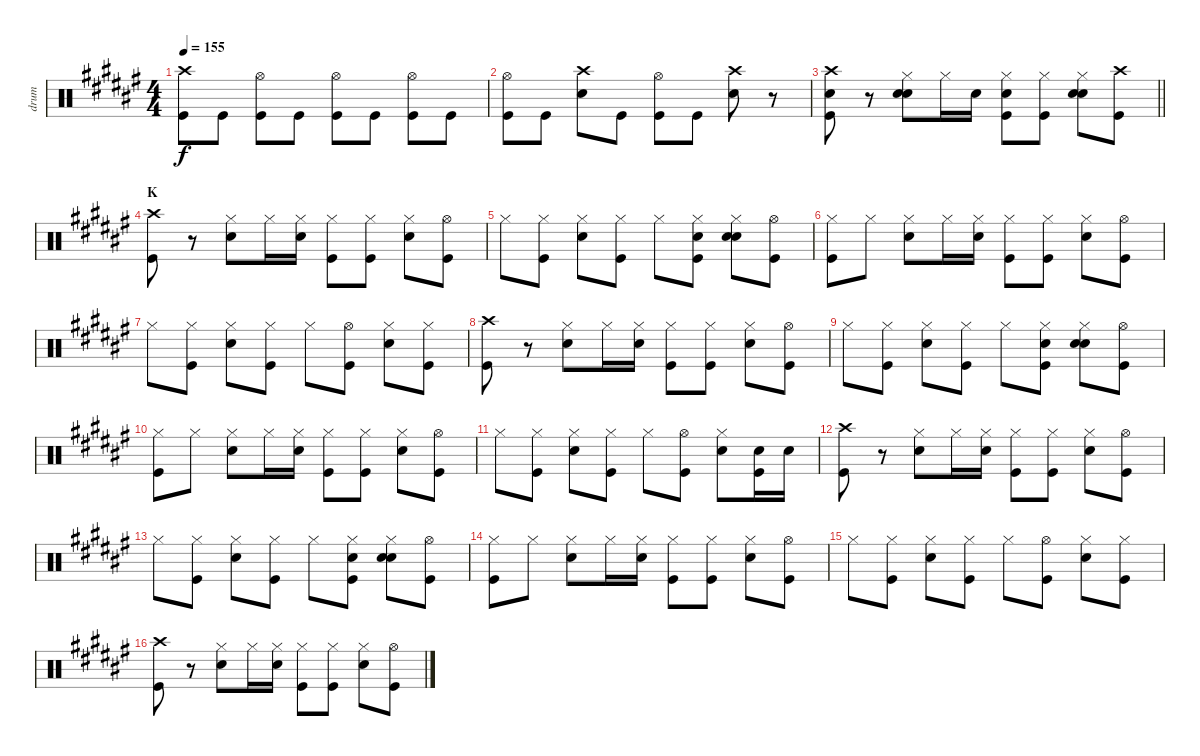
\track ("drum" "drum") {instrument percussion}
\staff {score}
\articulation defaults
\ts (4 4)
\tempo 155
\clef neutral
\ks f#
("Crash high (hit)" "Kick (hit)").8{dy f} "Kick (hit)".8 ("Hi-Hat (open)" "Kick (hit)").8 "Kick (hit)".8 ("Hi-Hat (open)" "Kick (hit)").8 "Kick (hit)".8 ("Hi-Hat (open)" "Kick (hit)").8 "Kick (hit)".8 |
("Hi-Hat (open)" "Kick (hit)").8 "Kick (hit)".8 ("Crash high (hit)" "Snare (hit) 2").8 "Kick (hit)".8 ("Hi-Hat (open)" "Kick (hit)").8 "Kick (hit)".8 ("Crash high (hit)" "Snare (hit) 2").8 r.8 |
\barLineRight lightlight
("Crash high (hit)" "Hand Clap (hit)" "Kick (hit)").8 r.8 ("Hi-Hat (closed)" "Snare (hit) 2" "Hand Clap (hit)").8 "Hi-Hat (closed)".16 "Snare (hit) 2".16 ("Hi-Hat (closed)" "Hand Clap (hit)" "Kick (hit)").8 ("Hi-Hat (closed)" "Kick (hit)").8 ("Hi-Hat (closed)" "Snare (hit) 2" "Hand Clap (hit)").8 ("Crash high (hit)" "Kick (hit)").8 |
\section ("" "K")
("Crash high (hit)" "Kick (hit)").8 r.8 ("Hi-Hat (closed)" "Snare (hit) 2").8 "Hi-Hat (closed)".16 ("Hi-Hat (closed)" "Snare (hit) 2").16 ("Hi-Hat (closed)" "Kick (hit)").8 ("Hi-Hat (closed)" "Kick (hit)").8 ("Hi-Hat (closed)" "Snare (hit) 2").8 ("Hi-Hat (open)" "Kick (hit)").8 |
"Hi-Hat (closed)".8 ("Hi-Hat (closed)" "Kick (hit)").8 ("Hi-Hat (closed)" "Snare (hit) 2").8 ("Hi-Hat (closed)" "Kick (hit)").8 "Hi-Hat (closed)".8 ("Hi-Hat (closed)" "Hand Clap (hit)" "Kick (hit)").8 ("Hi-Hat (closed)" "Snare (hit) 2" "Hand Clap (hit)").8 ("Hi-Hat (open)" "Kick (hit)").8 |
("Hi-Hat (closed)" "Kick (hit)").8 "Hi-Hat (closed)".8 ("Hi-Hat (closed)" "Snare (hit) 2").8 "Hi-Hat (closed)".16 ("Hi-Hat (closed)" "Snare (hit) 2").16 ("Hi-Hat (closed)" "Kick (hit)").8 ("Hi-Hat (closed)" "Kick (hit)").8 ("Hi-Hat (closed)" "Snare (hit) 2").8 ("Hi-Hat (open)" "Kick (hit)").8 |
"Hi-Hat (closed)".8 ("Hi-Hat (closed)" "Kick (hit)").8 ("Hi-Hat (closed)" "Snare (hit) 2").8 ("Hi-Hat (closed)" "Kick (hit)").8 "Hi-Hat (closed)".8 ("Hi-Hat (open)" "Kick (hit)").8 ("Hi-Hat (closed)" "Snare (hit) 2").8 ("Hi-Hat (closed)" "Kick (hit)").8 |
("Crash high (hit)" "Kick (hit)").8 r.8 ("Hi-Hat (closed)" "Snare (hit) 2").8 "Hi-Hat (closed)".16 ("Hi-Hat (closed)" "Snare (hit) 2").16 ("Hi-Hat (closed)" "Kick (hit)").8 ("Hi-Hat (closed)" "Kick (hit)").8 ("Hi-Hat (closed)" "Snare (hit) 2").8 ("Hi-Hat (open)" "Kick (hit)").8 |
"Hi-Hat (closed)".8 ("Hi-Hat (closed)" "Kick (hit)").8 ("Hi-Hat (closed)" "Snare (hit) 2").8 ("Hi-Hat (closed)" "Kick (hit)").8 "Hi-Hat (closed)".8 ("Hi-Hat (closed)" "Hand Clap (hit)" "Kick (hit)").8 ("Hi-Hat (closed)" "Snare (hit) 2" "Hand Clap (hit)").8 ("Hi-Hat (open)" "Kick (hit)").8 |
("Hi-Hat (closed)" "Kick (hit)").8 "Hi-Hat (closed)".8 ("Hi-Hat (closed)" "Snare (hit) 2").8 "Hi-Hat (closed)".16 ("Hi-Hat (closed)" "Snare (hit) 2").16 ("Hi-Hat (closed)" "Kick (hit)").8 ("Hi-Hat (closed)" "Kick (hit)").8 ("Hi-Hat (closed)" "Snare (hit) 2").8 ("Hi-Hat (open)" "Kick (hit)").8 |
"Hi-Hat (closed)".8 ("Hi-Hat (closed)" "Kick (hit)").8 ("Hi-Hat (closed)" "Snare (hit) 2").8 ("Hi-Hat (closed)" "Kick (hit)").8 "Hi-Hat (closed)".8 ("Hi-Hat (open)" "Kick (hit)").8 ("Hi-Hat (closed)" "Snare (hit) 2").8 ("Snare (hit) 2" "Kick (hit)").16 "Snare (hit) 2".16 |
("Crash high (hit)" "Kick (hit)").8 r.8 ("Hi-Hat (closed)" "Snare (hit) 2").8 "Hi-Hat (closed)".16 ("Hi-Hat (closed)" "Snare (hit) 2").16 ("Hi-Hat (closed)" "Kick (hit)").8 ("Hi-Hat (closed)" "Kick (hit)").8 ("Hi-Hat (closed)" "Snare (hit) 2").8 ("Hi-Hat (open)" "Kick (hit)").8 |
"Hi-Hat (closed)".8 ("Hi-Hat (closed)" "Kick (hit)").8 ("Hi-Hat (closed)" "Snare (hit) 2").8 ("Hi-Hat (closed)" "Kick (hit)").8 "Hi-Hat (closed)".8 ("Hi-Hat (closed)" "Hand Clap (hit)" "Kick (hit)").8 ("Hi-Hat (closed)" "Snare (hit) 2" "Hand Clap (hit)").8 ("Hi-Hat (open)" "Kick (hit)").8 |
("Hi-Hat (closed)" "Kick (hit)").8 "Hi-Hat (closed)".8 ("Hi-Hat (closed)" "Snare (hit) 2").8 "Hi-Hat (closed)".16 ("Hi-Hat (closed)" "Snare (hit) 2").16 ("Hi-Hat (closed)" "Kick (hit)").8 ("Hi-Hat (closed)" "Kick (hit)").8 ("Hi-Hat (closed)" "Snare (hit) 2").8 ("Hi-Hat (open)" "Kick (hit)").8 |
"Hi-Hat (closed)".8 ("Hi-Hat (closed)" "Kick (hit)").8 ("Hi-Hat (closed)" "Snare (hit) 2").8 ("Hi-Hat (closed)" "Kick (hit)").8 "Hi-Hat (closed)".8 ("Hi-Hat (open)" "Kick (hit)").8 ("Hi-Hat (closed)" "Snare (hit) 2").8 ("Hi-Hat (closed)" "Kick (hit)").8 |
("Crash high (hit)" "Kick (hit)").8 r.8 ("Hi-Hat (closed)" "Snare (hit) 2").8 "Hi-Hat (closed)".16 ("Hi-Hat (closed)" "Snare (hit) 2").16 ("Hi-Hat (closed)" "Kick (hit)").8 ("Hi-Hat (closed)" "Kick (hit)").8 ("Hi-Hat (closed)" "Snare (hit) 2").8 ("Hi-Hat (open)" "Kick (hit)").8
